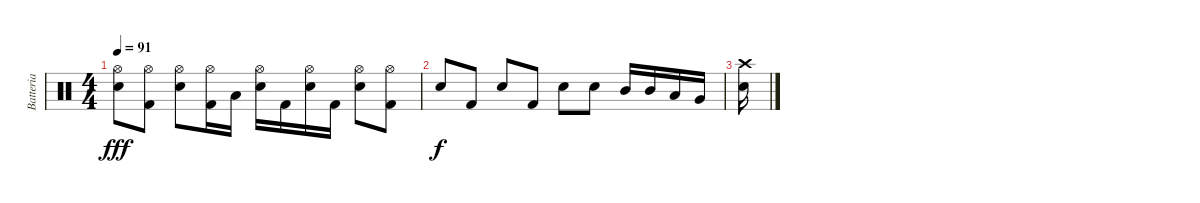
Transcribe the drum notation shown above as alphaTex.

\track ("Batteria" "Batteria") {instrument percussion}
\staff {score}
\articulation defaults
\ts (4 4)
\tempo 91
\clef neutral
\ks c
("Hi-Hat (open)" "Electric Snare (hit)").8{dy fff} ("Hi-Hat (open)" "Kick (hit) 2").8 ("Hi-Hat (open)" "Electric Snare (hit)").8 ("Hi-Hat (open)" "Kick (hit) 2").16 "Low Floor Tom (hit)".16 ("Hi-Hat (open)" "Electric Snare (hit)").16 "Kick (hit) 2".16 ("Hi-Hat (open)" "Electric Snare (hit)").16 "Kick (hit) 2".16 ("Hi-Hat (open)" "Electric Snare (hit)").8 ("Hi-Hat (open)" "Kick (hit) 2").8 |
"Electric Snare (hit)".8{dy f} "Kick (hit) 2".8 "Electric Snare (hit)".8 "Kick (hit) 2".8 "Electric Snare (hit)".8 "Electric Snare (hit)".8 "Mid Tom (hit)".16 "Mid Tom (hit)".16 "Low Tom (hit)".16 "Very Low Tom (hit)".16 |
("Electric Snare (hit)" "Crash high (hit)").16
